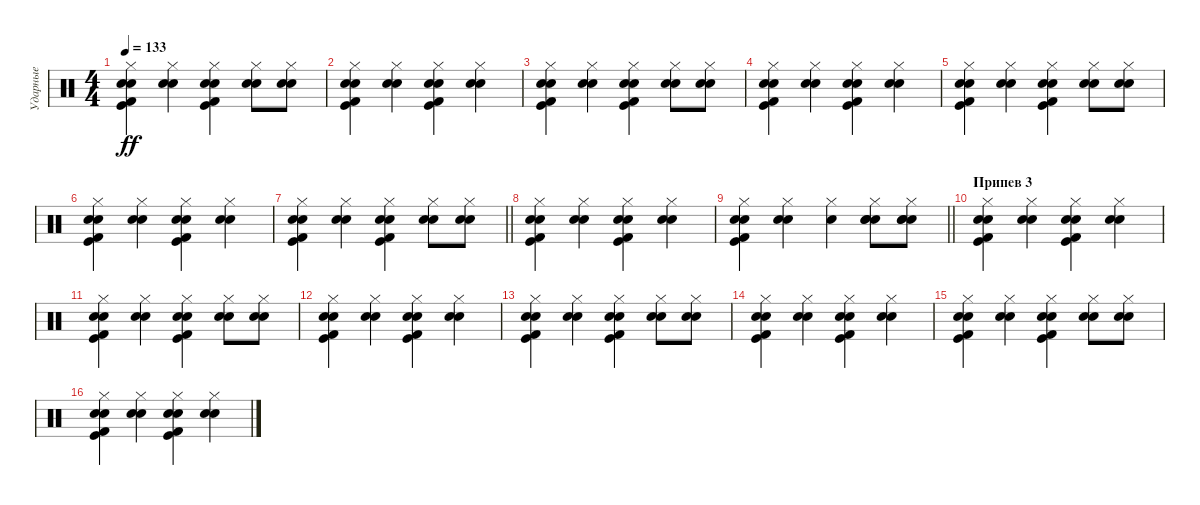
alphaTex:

\track ("Ударные" "Ударные") {instrument percussion}
\staff {score}
\articulation defaults
\ts (4 4)
\tempo 133
\clef neutral
\ks c
("Snare (hit) 2" "Kick (hit)" "Kick (hit) 2" "Snare (hit) 2" "Hi-Hat (closed)").4{dy ff} ("Electric Snare (hit)" "Electric Snare (hit)" "Hi-Hat (closed)").4 ("Snare (hit) 2" "Kick (hit)" "Kick (hit) 2" "Snare (hit) 2" "Hi-Hat (closed)").4 ("Electric Snare (hit)" "Electric Snare (hit)" "Hi-Hat (closed)").8 ("Electric Snare (hit)" "Electric Snare (hit)" "Hi-Hat (closed)").8 |
("Snare (hit) 2" "Kick (hit)" "Kick (hit) 2" "Snare (hit) 2" "Hi-Hat (closed)").4 ("Electric Snare (hit)" "Electric Snare (hit)" "Hi-Hat (closed)").4 ("Snare (hit) 2" "Kick (hit)" "Kick (hit) 2" "Snare (hit) 2" "Hi-Hat (closed)").4 ("Electric Snare (hit)" "Electric Snare (hit)" "Hi-Hat (closed)").4 |
("Snare (hit) 2" "Kick (hit)" "Kick (hit) 2" "Snare (hit) 2" "Hi-Hat (closed)").4 ("Electric Snare (hit)" "Electric Snare (hit)" "Hi-Hat (closed)").4 ("Snare (hit) 2" "Kick (hit)" "Kick (hit) 2" "Snare (hit) 2" "Hi-Hat (closed)").4 ("Electric Snare (hit)" "Electric Snare (hit)" "Hi-Hat (closed)").8 ("Electric Snare (hit)" "Electric Snare (hit)" "Hi-Hat (closed)").8 |
("Snare (hit) 2" "Kick (hit)" "Kick (hit) 2" "Snare (hit) 2" "Hi-Hat (closed)").4 ("Electric Snare (hit)" "Electric Snare (hit)" "Hi-Hat (closed)").4 ("Snare (hit) 2" "Kick (hit)" "Kick (hit) 2" "Snare (hit) 2" "Hi-Hat (closed)").4 ("Electric Snare (hit)" "Electric Snare (hit)" "Hi-Hat (closed)").4 |
("Snare (hit) 2" "Kick (hit)" "Kick (hit) 2" "Snare (hit) 2" "Hi-Hat (closed)").4 ("Electric Snare (hit)" "Electric Snare (hit)" "Hi-Hat (closed)").4 ("Snare (hit) 2" "Kick (hit)" "Kick (hit) 2" "Snare (hit) 2" "Hi-Hat (closed)").4 ("Electric Snare (hit)" "Electric Snare (hit)" "Hi-Hat (closed)").8 ("Electric Snare (hit)" "Electric Snare (hit)" "Hi-Hat (closed)").8 |
("Snare (hit) 2" "Kick (hit)" "Kick (hit) 2" "Snare (hit) 2" "Hi-Hat (closed)").4 ("Electric Snare (hit)" "Electric Snare (hit)" "Hi-Hat (closed)").4 ("Snare (hit) 2" "Kick (hit)" "Kick (hit) 2" "Snare (hit) 2" "Hi-Hat (closed)").4 ("Electric Snare (hit)" "Electric Snare (hit)" "Hi-Hat (closed)").4 |
\barLineRight lightlight
("Snare (hit) 2" "Kick (hit)" "Kick (hit) 2" "Snare (hit) 2" "Hi-Hat (closed)").4 ("Electric Snare (hit)" "Electric Snare (hit)" "Hi-Hat (closed)").4 ("Snare (hit) 2" "Kick (hit)" "Kick (hit) 2" "Snare (hit) 2" "Hi-Hat (closed)").4 ("Electric Snare (hit)" "Electric Snare (hit)" "Hi-Hat (closed)").8 ("Electric Snare (hit)" "Electric Snare (hit)" "Hi-Hat (closed)").8 |
("Snare (hit) 2" "Kick (hit)" "Kick (hit) 2" "Snare (hit) 2" "Hi-Hat (closed)").4 ("Electric Snare (hit)" "Electric Snare (hit)" "Hi-Hat (closed)").4 ("Snare (hit) 2" "Kick (hit)" "Kick (hit) 2" "Snare (hit) 2" "Hi-Hat (closed)").4 ("Electric Snare (hit)" "Electric Snare (hit)" "Hi-Hat (closed)").4 |
\barLineRight lightlight
("Snare (hit) 2" "Kick (hit)" "Kick (hit) 2" "Snare (hit) 2" "Hi-Hat (closed)").4 ("Electric Snare (hit)" "Electric Snare (hit)" "Hi-Hat (closed)").4 ("Electric Snare (hit)" "Hi-Hat (closed)").4 ("Snare (hit) 2" "Electric Snare (hit)" "Snare (hit) 2" "Hi-Hat (closed)").8 ("Snare (hit) 2" "Electric Snare (hit)" "Snare (hit) 2" "Hi-Hat (closed)").8 |
\section ("" "Припев 3")
("Snare (hit) 2" "Kick (hit)" "Kick (hit) 2" "Snare (hit) 2" "Hi-Hat (closed)").4 ("Electric Snare (hit)" "Electric Snare (hit)" "Hi-Hat (closed)").4 ("Snare (hit) 2" "Kick (hit)" "Kick (hit) 2" "Snare (hit) 2" "Hi-Hat (closed)").4 ("Electric Snare (hit)" "Electric Snare (hit)" "Hi-Hat (closed)").4 |
("Snare (hit) 2" "Kick (hit)" "Kick (hit) 2" "Snare (hit) 2" "Hi-Hat (closed)").4 ("Electric Snare (hit)" "Electric Snare (hit)" "Hi-Hat (closed)").4 ("Snare (hit) 2" "Kick (hit)" "Kick (hit) 2" "Snare (hit) 2" "Hi-Hat (closed)").4 ("Electric Snare (hit)" "Electric Snare (hit)" "Hi-Hat (closed)").8 ("Electric Snare (hit)" "Electric Snare (hit)" "Hi-Hat (closed)").8 |
("Snare (hit) 2" "Kick (hit)" "Kick (hit) 2" "Snare (hit) 2" "Hi-Hat (closed)").4 ("Electric Snare (hit)" "Electric Snare (hit)" "Hi-Hat (closed)").4 ("Snare (hit) 2" "Kick (hit)" "Kick (hit) 2" "Snare (hit) 2" "Hi-Hat (closed)").4 ("Electric Snare (hit)" "Electric Snare (hit)" "Hi-Hat (closed)").4 |
("Snare (hit) 2" "Kick (hit)" "Kick (hit) 2" "Snare (hit) 2" "Hi-Hat (closed)").4 ("Electric Snare (hit)" "Electric Snare (hit)" "Hi-Hat (closed)").4 ("Snare (hit) 2" "Kick (hit)" "Kick (hit) 2" "Snare (hit) 2" "Hi-Hat (closed)").4 ("Electric Snare (hit)" "Electric Snare (hit)" "Hi-Hat (closed)").8 ("Electric Snare (hit)" "Electric Snare (hit)" "Hi-Hat (closed)").8 |
("Snare (hit) 2" "Kick (hit)" "Kick (hit) 2" "Snare (hit) 2" "Hi-Hat (closed)").4 ("Electric Snare (hit)" "Electric Snare (hit)" "Hi-Hat (closed)").4 ("Snare (hit) 2" "Kick (hit)" "Kick (hit) 2" "Snare (hit) 2" "Hi-Hat (closed)").4 ("Electric Snare (hit)" "Electric Snare (hit)" "Hi-Hat (closed)").4 |
("Snare (hit) 2" "Kick (hit)" "Kick (hit) 2" "Snare (hit) 2" "Hi-Hat (closed)").4 ("Electric Snare (hit)" "Electric Snare (hit)" "Hi-Hat (closed)").4 ("Snare (hit) 2" "Kick (hit)" "Kick (hit) 2" "Snare (hit) 2" "Hi-Hat (closed)").4 ("Electric Snare (hit)" "Electric Snare (hit)" "Hi-Hat (closed)").8 ("Electric Snare (hit)" "Electric Snare (hit)" "Hi-Hat (closed)").8 |
("Snare (hit) 2" "Kick (hit)" "Kick (hit) 2" "Snare (hit) 2" "Hi-Hat (closed)").4 ("Electric Snare (hit)" "Electric Snare (hit)" "Hi-Hat (closed)").4 ("Snare (hit) 2" "Kick (hit)" "Kick (hit) 2" "Snare (hit) 2" "Hi-Hat (closed)").4 ("Electric Snare (hit)" "Electric Snare (hit)" "Hi-Hat (closed)").4
